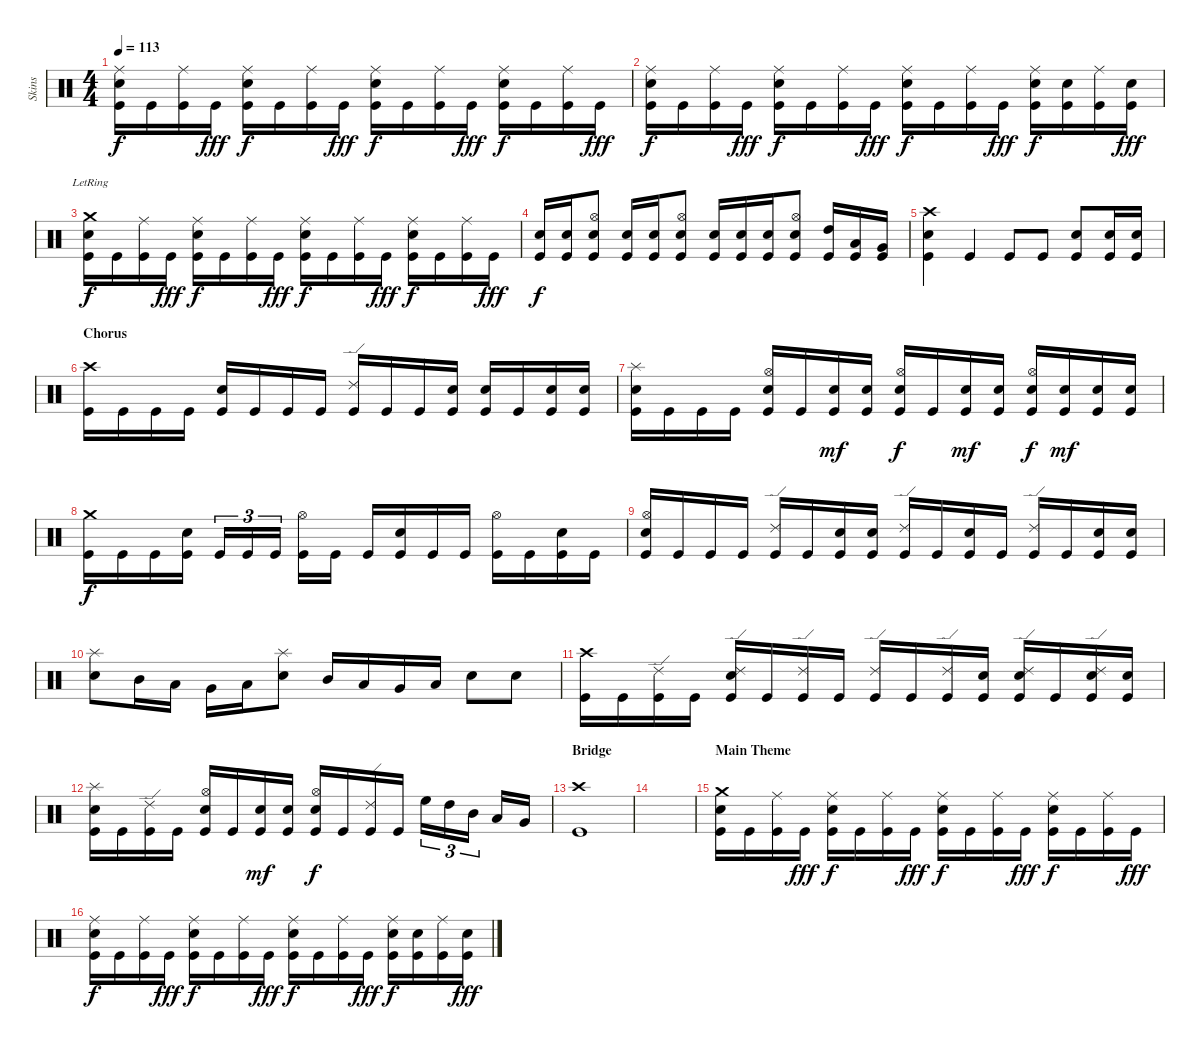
\track ("Skins" "Skins") {instrument percussion}
\staff {score}
\articulation defaults
\ts (4 4)
\tempo 113
\clef neutral
\ks c
("Ride (middle)" "Snare (hit) 2" "Kick (hit)").16{dy f} "Kick (hit)".16 ("Ride (middle)" "Kick (hit)").16 "Kick (hit)".16{dy fff} ("Ride (middle)" "Snare (hit) 2" "Kick (hit)").16{dy f} "Kick (hit)".16 ("Ride (middle)" "Kick (hit)").16 "Kick (hit)".16{dy fff} ("Ride (middle)" "Snare (hit) 2" "Kick (hit)").16{dy f} "Kick (hit)".16 ("Ride (middle)" "Kick (hit)").16 "Kick (hit)".16{dy fff} ("Ride (middle)" "Snare (hit) 2" "Kick (hit)").16{dy f} "Kick (hit)".16 ("Ride (middle)" "Kick (hit)").16 "Kick (hit)".16{dy fff} |
("Ride (middle)" "Snare (hit) 2" "Kick (hit)").16{dy f} "Kick (hit)".16 ("Ride (middle)" "Kick (hit)").16 "Kick (hit)".16{dy fff} ("Ride (middle)" "Snare (hit) 2" "Kick (hit)").16{dy f} "Kick (hit)".16 ("Ride (middle)" "Kick (hit)").16 "Kick (hit)".16{dy fff} ("Ride (middle)" "Snare (hit) 2" "Kick (hit)").16{dy f} "Kick (hit)".16 ("Ride (middle)" "Kick (hit)").16 "Kick (hit)".16{dy fff} ("Ride (middle)" "Snare (hit) 2" "Kick (hit)").16{dy f} ("Snare (hit) 2" "Kick (hit)").16 ("Ride (middle)" "Kick (hit)").16 ("Snare (hit) 2" "Kick (hit)").16{dy fff} |
("Snare (hit) 2" "Crash medium (hit)"{lr} "Kick (hit)").16{dy f} "Kick (hit)".16 ("Ride (middle)" "Kick (hit)").16 "Kick (hit)".16{dy fff} ("Ride (middle)" "Snare (hit) 2" "Kick (hit)").16{dy f} "Kick (hit)".16 ("Ride (middle)" "Kick (hit)").16 "Kick (hit)".16{dy fff} ("Ride (middle)" "Snare (hit) 2" "Kick (hit)").16{dy f} "Kick (hit)".16 ("Ride (middle)" "Kick (hit)").16 "Kick (hit)".16{dy fff} ("Ride (middle)" "Snare (hit) 2" "Kick (hit)").16{dy f} "Kick (hit)".16 ("Ride (middle)" "Kick (hit)").16 "Kick (hit)".16{dy fff} |
("Snare (hit) 2" "Kick (hit)").16{dy f} ("Snare (hit) 2" "Kick (hit)").16 ("Hi-Hat (open)" "Electric Snare (hit)" "Kick (hit)").8 ("Snare (hit) 2" "Kick (hit)").16 ("Snare (hit) 2" "Kick (hit)").16 ("Hi-Hat (open)" "Electric Snare (hit)" "Kick (hit)").8 ("Snare (hit) 2" "Kick (hit)").16 ("Snare (hit) 2" "Kick (hit)").16 ("Snare (hit) 2" "Kick (hit)").16 ("Hi-Hat (open)" "Electric Snare (hit)" "Kick (hit)").8 ("High Tom (hit)" "Kick (hit)").16 ("Low Tom (hit)" "Kick (hit)").16 ("Very Low Tom (hit)" "Kick (hit)").16 |
("Crash high (hit)" "Electric Snare (hit)" "Kick (hit)").4 "Kick (hit)".4 "Kick (hit)".8 "Kick (hit)".8 ("Electric Snare (hit)" "Kick (hit)").8 ("Snare (hit) 2" "Kick (hit)").16 ("Snare (hit) 2" "Kick (hit)").16 |
\section ("" "Chorus")
("Crash high (hit)" "Kick (hit)").16{volume 13 balance 8} "Kick (hit)".16 "Kick (hit)".16 "Kick (hit)".16 ("Electric Snare (hit)" "Kick (hit)").16 "Kick (hit)".16 "Kick (hit)".16 "Kick (hit)".16 ("Ride (edge) 2" "Kick (hit)").16 "Kick (hit)".16 "Kick (hit)".16 ("Snare (hit) 2" "Kick (hit)").16 ("Electric Snare (hit)" "Kick (hit)").16 "Kick (hit)".16 ("Snare (hit) 2" "Kick (hit)").16 ("Snare (hit) 2" "Kick (hit)").16 |
("Splash (hit)" "Electric Snare (hit)" "Kick (hit)").16 "Kick (hit)".16 "Kick (hit)".16 "Kick (hit)".16 ("Hi-Hat (open)" "Electric Snare (hit)" "Kick (hit)").16 "Kick (hit)".16 ("Snare (hit) 2" "Kick (hit)").16{dy mf} ("Snare (hit) 2" "Kick (hit)").16 ("Hi-Hat (open)" "Electric Snare (hit)" "Kick (hit)").16{dy f} "Kick (hit)".16 ("Snare (hit) 2" "Kick (hit)").16{dy mf} ("Snare (hit) 2" "Kick (hit)").16 ("Hi-Hat (open)" "Electric Snare (hit)" "Kick (hit)").16{dy f} ("Snare (hit) 2" "Kick (hit)").16{dy mf} ("Snare (hit) 2" "Kick (hit)").16 ("Snare (hit) 2" "Kick (hit)").16 |
("Crash medium (hit)" "Kick (hit)").16{dy f} "Kick (hit)".16 "Kick (hit)".16 ("Electric Snare (hit)" "Kick (hit)").16 "Kick (hit)".16{tu (3 2)} "Kick (hit)".16{tu (3 2)} "Kick (hit)".16{tu (3 2)} ("Hi-Hat (open)" "Kick (hit)").16 "Kick (hit)".16 "Kick (hit)".16 ("Electric Snare (hit)" "Kick (hit)").16 "Kick (hit)".16 "Kick (hit)".16 ("Hi-Hat (open)" "Kick (hit)").16 "Kick (hit)".16 ("Snare (hit) 2" "Kick (hit)").16 "Kick (hit)".16 |
("Hi-Hat (open)" "Electric Snare (hit)" "Kick (hit)").16 "Kick (hit)".16 "Kick (hit)".16 "Kick (hit)".16 ("Ride (edge) 2" "Kick (hit)").16 "Kick (hit)".16 ("Snare (hit) 2" "Kick (hit)").16 ("Snare (hit) 2" "Kick (hit)").16 ("Ride (edge) 2" "Kick (hit)").16 "Kick (hit)".16 ("Snare (hit) 2" "Kick (hit)").16 "Kick (hit)".16 ("Ride (edge) 2" "Kick (hit)").16 "Kick (hit)".16 ("Snare (hit) 2" "Kick (hit)").16 ("Snare (hit) 2" "Kick (hit)").16 |
("Splash (hit)" "Snare (hit) 2").8 "Mid Tom (hit)".16 "Low Tom (hit)".16 "Very Low Tom (hit)".16 "Low Floor Tom (hit)".16 ("Splash (hit)" "Snare (hit) 2").8 "Mid Tom (hit)".16 "Low Tom (hit)".16 "Very Low Tom (hit)".16 "Low Floor Tom (hit)".16 "Electric Snare (hit)".8 "Electric Snare (hit)".8 |
("Crash high (hit)" "Kick (hit)").16 "Kick (hit)".16 ("Ride (edge) 2" "Kick (hit)").16 "Kick (hit)".16 ("Ride (edge) 2" "Electric Snare (hit)" "Kick (hit)").16 "Kick (hit)".16 ("Ride (edge) 2" "Kick (hit)").16 "Kick (hit)".16 ("Ride (edge) 2" "Kick (hit)").16 "Kick (hit)".16 ("Ride (edge) 2" "Kick (hit)").16 ("Snare (hit) 2" "Kick (hit)").16 ("Ride (edge) 2" "Electric Snare (hit)" "Kick (hit)").16 "Kick (hit)".16 ("Ride (edge) 2" "Snare (hit) 2" "Kick (hit)").16 ("Snare (hit) 2" "Kick (hit)").16 |
("Splash (hit)" "Electric Snare (hit)" "Kick (hit)").16 "Kick (hit)".16 ("Ride (edge) 2" "Kick (hit)").16 "Kick (hit)".16 ("Hi-Hat (open)" "Electric Snare (hit)" "Kick (hit)").16 "Kick (hit)".16 ("Snare (hit) 2" "Kick (hit)").16{dy mf} ("Snare (hit) 2" "Kick (hit)").16 ("Hi-Hat (open)" "Electric Snare (hit)" "Kick (hit)").16{dy f} "Kick (hit)".16 ("Ride (edge) 2" "Kick (hit)").16 "Kick (hit)".16 "High Floor Tom (hit)".16{tu (3 2)} "High Tom (hit)".16{tu (3 2)} "Mid Tom (hit)".16{tu (3 2)} "Low Tom (hit)".16 "Very Low Tom (hit)".16 |
\section ("" "Bridge")
("Crash high (hit)" "Kick (hit)").1 |
|
\section ("" "Main Theme")
("Electric Snare (hit)" "Crash medium (hit)" "Kick (hit)").16 "Kick (hit)".16 ("Ride (middle)" "Kick (hit)").16 "Kick (hit)".16{dy fff} ("Ride (middle)" "Snare (hit) 2" "Kick (hit)").16{dy f} "Kick (hit)".16 ("Ride (middle)" "Kick (hit)").16 "Kick (hit)".16{dy fff} ("Ride (middle)" "Snare (hit) 2" "Kick (hit)").16{dy f} "Kick (hit)".16 ("Ride (middle)" "Kick (hit)").16 "Kick (hit)".16{dy fff} ("Ride (middle)" "Snare (hit) 2" "Kick (hit)").16{dy f} "Kick (hit)".16 ("Ride (middle)" "Kick (hit)").16 "Kick (hit)".16{dy fff} |
("Ride (middle)" "Snare (hit) 2" "Kick (hit)").16{dy f} "Kick (hit)".16 ("Ride (middle)" "Kick (hit)").16 "Kick (hit)".16{dy fff} ("Ride (middle)" "Snare (hit) 2" "Kick (hit)").16{dy f} "Kick (hit)".16 ("Ride (middle)" "Kick (hit)").16 "Kick (hit)".16{dy fff} ("Ride (middle)" "Snare (hit) 2" "Kick (hit)").16{dy f} "Kick (hit)".16 ("Ride (middle)" "Kick (hit)").16 "Kick (hit)".16{dy fff} ("Ride (middle)" "Snare (hit) 2" "Kick (hit)").16{dy f} ("Snare (hit) 2" "Kick (hit)").16 ("Ride (middle)" "Kick (hit)").16 ("Snare (hit) 2" "Kick (hit)").16{dy fff}
